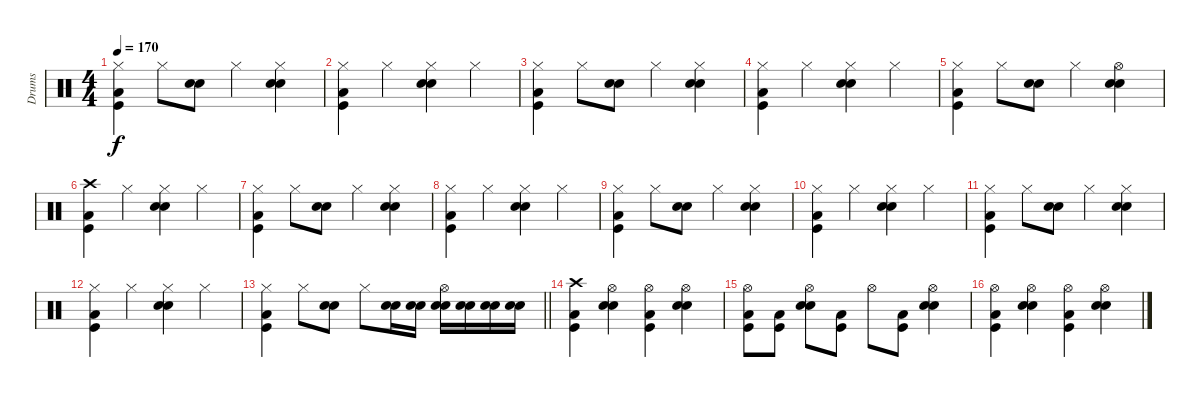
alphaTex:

\track ("Drums" "Drums") {instrument percussion}
\staff {score}
\articulation defaults
\ts (4 4)
\tempo 170
\clef neutral
\ks c
("Hi-Hat (closed)" "Kick (hit)" "Low Tom (hit)").4{dy f} "Hi-Hat (closed)".8 ("Snare (hit) 2" "Electric Snare (hit)").8 "Hi-Hat (closed)".4 ("Hi-Hat (closed)" "Snare (hit) 2" "Electric Snare (hit)").4 |
("Hi-Hat (closed)" "Kick (hit)" "Low Tom (hit)").4 "Hi-Hat (closed)".4 ("Hi-Hat (closed)" "Snare (hit) 2" "Electric Snare (hit)").4 "Hi-Hat (closed)".4 |
("Hi-Hat (closed)" "Kick (hit)" "Low Tom (hit)").4 "Hi-Hat (closed)".8 ("Snare (hit) 2" "Electric Snare (hit)").8 "Hi-Hat (closed)".4 ("Hi-Hat (closed)" "Snare (hit) 2" "Electric Snare (hit)").4 |
("Hi-Hat (closed)" "Kick (hit)" "Low Tom (hit)").4 "Hi-Hat (closed)".4 ("Hi-Hat (closed)" "Snare (hit) 2" "Electric Snare (hit)").4 "Hi-Hat (closed)".4 |
("Hi-Hat (closed)" "Kick (hit)" "Low Tom (hit)").4 "Hi-Hat (closed)".8 ("Snare (hit) 2" "Electric Snare (hit)").8 "Hi-Hat (closed)".4 ("Hi-Hat (open)" "Snare (hit) 2" "Electric Snare (hit)").4 |
("Crash high (hit)" "Kick (hit)" "Low Tom (hit)").4 "Hi-Hat (closed)".4 ("Hi-Hat (closed)" "Snare (hit) 2" "Electric Snare (hit)").4 "Hi-Hat (closed)".4 |
("Hi-Hat (closed)" "Kick (hit)" "Low Tom (hit)").4 "Hi-Hat (closed)".8 ("Snare (hit) 2" "Electric Snare (hit)").8 "Hi-Hat (closed)".4 ("Hi-Hat (closed)" "Snare (hit) 2" "Electric Snare (hit)").4 |
("Hi-Hat (closed)" "Kick (hit)" "Low Tom (hit)").4 "Hi-Hat (closed)".4 ("Hi-Hat (closed)" "Snare (hit) 2" "Electric Snare (hit)").4 "Hi-Hat (closed)".4 |
("Hi-Hat (closed)" "Kick (hit)" "Low Tom (hit)").4 "Hi-Hat (closed)".8 ("Snare (hit) 2" "Electric Snare (hit)").8 "Hi-Hat (closed)".4 ("Hi-Hat (closed)" "Snare (hit) 2" "Electric Snare (hit)").4 |
("Hi-Hat (closed)" "Kick (hit)" "Low Tom (hit)").4 "Hi-Hat (closed)".4 ("Hi-Hat (closed)" "Snare (hit) 2" "Electric Snare (hit)").4 "Hi-Hat (closed)".4 |
("Hi-Hat (closed)" "Kick (hit)" "Low Tom (hit)").4 "Hi-Hat (closed)".8 ("Snare (hit) 2" "Electric Snare (hit)").8 "Hi-Hat (closed)".4 ("Hi-Hat (closed)" "Snare (hit) 2" "Electric Snare (hit)").4 |
("Hi-Hat (closed)" "Kick (hit)" "Low Tom (hit)").4 "Hi-Hat (closed)".4 ("Hi-Hat (closed)" "Snare (hit) 2" "Electric Snare (hit)").4 "Hi-Hat (closed)".4 |
\barLineRight lightlight
("Hi-Hat (closed)" "Kick (hit)" "Low Tom (hit)").4 "Hi-Hat (closed)".8 ("Snare (hit) 2" "Electric Snare (hit)").8 "Hi-Hat (closed)".8 ("Snare (hit) 2" "Electric Snare (hit)").16 ("Snare (hit) 2" "Electric Snare (hit)").16 ("Hi-Hat (open)" "Snare (hit) 2" "Electric Snare (hit)").16 ("Snare (hit) 2" "Electric Snare (hit)").16 ("Snare (hit) 2" "Electric Snare (hit)").16 ("Snare (hit) 2" "Electric Snare (hit)").16 |
("Crash high (hit)" "Kick (hit)" "Low Tom (hit)").4 ("Hi-Hat (open)" "Snare (hit) 2" "Electric Snare (hit)").4 ("Hi-Hat (open)" "Kick (hit)" "Low Tom (hit)").4 ("Hi-Hat (open)" "Snare (hit) 2" "Electric Snare (hit)").4 |
("Hi-Hat (open)" "Kick (hit)" "Low Tom (hit)").8 ("Kick (hit)" "Low Tom (hit)").8 ("Hi-Hat (open)" "Snare (hit) 2" "Electric Snare (hit)").8 ("Kick (hit)" "Low Tom (hit)").8 "Hi-Hat (open)".8 ("Kick (hit)" "Low Tom (hit)").8 ("Hi-Hat (open)" "Snare (hit) 2" "Electric Snare (hit)").4 |
("Hi-Hat (open)" "Kick (hit)" "Low Tom (hit)").4 ("Hi-Hat (open)" "Snare (hit) 2" "Electric Snare (hit)").4 ("Hi-Hat (open)" "Kick (hit)" "Low Tom (hit)").4 ("Hi-Hat (open)" "Snare (hit) 2" "Electric Snare (hit)").4
